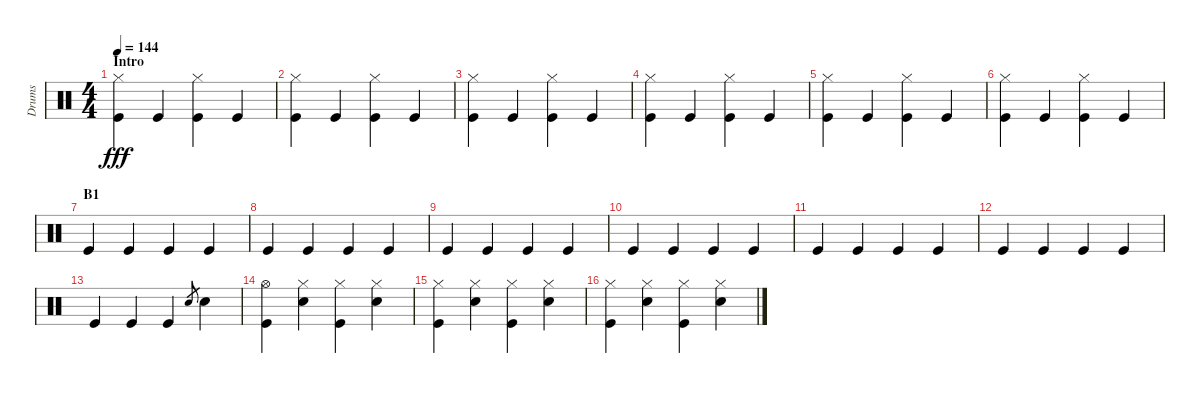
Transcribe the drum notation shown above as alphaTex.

\track ("Drums" "Drums") {instrument percussion}
\staff {score}
\articulation defaults
\ts (4 4)
\section ("" "Intro")
\tempo 144
\clef neutral
\ks c
("Hi-Hat (closed)" "Kick (hit)").4{dy fff} "Kick (hit)".4 ("Hi-Hat (closed)" "Kick (hit)").4 "Kick (hit)".4 |
("Hi-Hat (closed)" "Kick (hit)").4 "Kick (hit)".4 ("Hi-Hat (closed)" "Kick (hit)").4 "Kick (hit)".4 |
("Hi-Hat (closed)" "Kick (hit)").4 "Kick (hit)".4 ("Hi-Hat (closed)" "Kick (hit)").4 "Kick (hit)".4 |
("Hi-Hat (closed)" "Kick (hit)").4 "Kick (hit)".4 ("Hi-Hat (closed)" "Kick (hit)").4 "Kick (hit)".4 |
("Hi-Hat (closed)" "Kick (hit)").4 "Kick (hit)".4 ("Hi-Hat (closed)" "Kick (hit)").4 "Kick (hit)".4 |
("Hi-Hat (closed)" "Kick (hit)").4 "Kick (hit)".4 ("Hi-Hat (closed)" "Kick (hit)").4 "Kick (hit)".4 |
\section ("" "B1")
"Kick (hit)".4 "Kick (hit)".4 "Kick (hit)".4 "Kick (hit)".4 |
"Kick (hit)".4 "Kick (hit)".4 "Kick (hit)".4 "Kick (hit)".4 |
"Kick (hit)".4 "Kick (hit)".4 "Kick (hit)".4 "Kick (hit)".4 |
"Kick (hit)".4 "Kick (hit)".4 "Kick (hit)".4 "Kick (hit)".4 |
"Kick (hit)".4 "Kick (hit)".4 "Kick (hit)".4 "Kick (hit)".4 |
"Kick (hit)".4 "Kick (hit)".4 "Kick (hit)".4 "Kick (hit)".4 |
"Kick (hit)".4 "Kick (hit)".4 "Kick (hit)".4 "Snare (hit) 2".8{gr} "Snare (hit) 2".4 |
("Hi-Hat (open)" "Kick (hit)").4 ("Hi-Hat (closed)" "Snare (hit) 2").4 ("Hi-Hat (closed)" "Kick (hit)").4 ("Hi-Hat (closed)" "Snare (hit) 2").4 |
("Hi-Hat (closed)" "Kick (hit)").4 ("Hi-Hat (closed)" "Snare (hit) 2").4 ("Hi-Hat (closed)" "Kick (hit)").4 ("Hi-Hat (closed)" "Snare (hit) 2").4 |
("Hi-Hat (closed)" "Kick (hit)").4 ("Hi-Hat (closed)" "Snare (hit) 2").4 ("Hi-Hat (closed)" "Kick (hit)").4 ("Hi-Hat (closed)" "Snare (hit) 2").4
